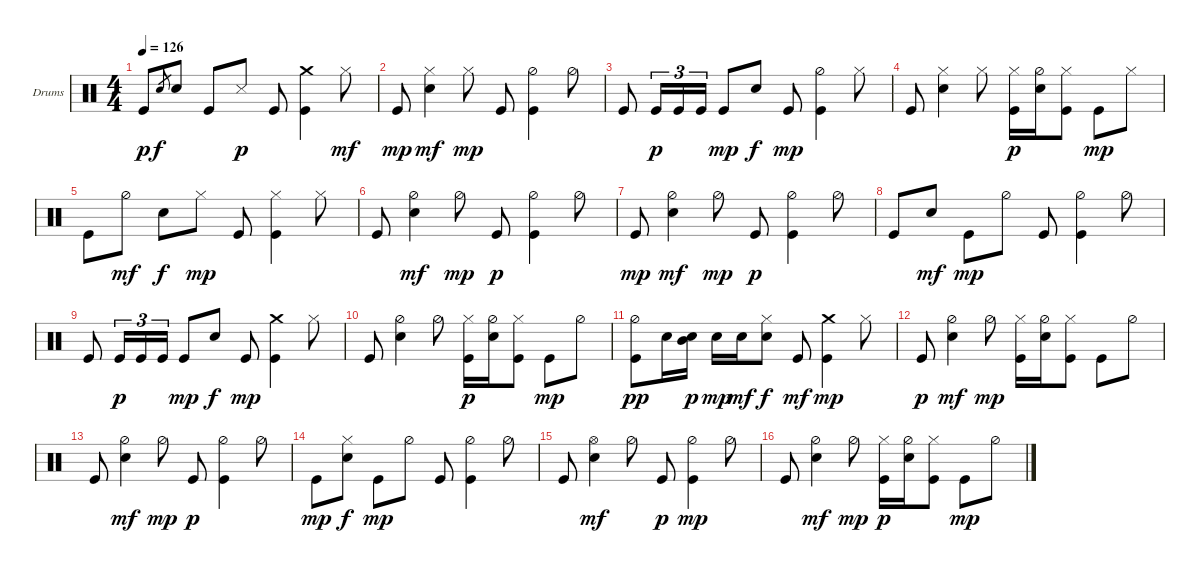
\bracketExtendMode groupsimilarinstruments
\firstSystemTrackNameOrientation horizontal
\otherSystemsTrackNameOrientation horizontal
\track ("drums - john hinch" "Drums") {instrument percussion}
\staff {score}
\articulation defaults
\ts (4 4)
\tempo 126
\clef neutral
\scale
0.333333
\ks c "Kick (hit)".8{dy p} "Snare (hit) 2".8{gr dy f} "Snare (hit) 2".8 "Kick (hit)".8 "Snare (side stick) 3".8{dy p} "Kick (hit)".8
("Kick (hit)" "Crash medium (hit)").4 "Hi-Hat (closed)".8{dy mf} |
\scale
0.333333 "Kick (hit)".8{dy mp} ("Snare (hit) 2" "Hi-Hat (closed)").4{dy mf} "Hi-Hat (closed)".8{dy mp} "Kick (hit)".8 ("Hi-Hat (half)" "Kick (hit)").4 "Hi-Hat (half)".8 |
"Kick (hit)".8 "Kick (hit)".16{tu (3 2) dy p} "Kick (hit)".16{tu (3 2)} "Kick (hit)".16{tu (3 2)} "Kick (hit)".8{dy mp} "Snare (hit) 2".8{dy f} "Kick (hit)".8{dy mp} ("Hi-Hat (half)" "Kick (hit)").4 "Hi-Hat (closed)".8 |
\scale
0.333333 "Kick (hit)".8 ("Snare (hit) 2" "Hi-Hat (closed)").4 "Hi-Hat (closed)".8 ("Kick (hit)" "Hi-Hat (closed)").16{dy p} ("Snare (hit) 2" "Hi-Hat (half)").16 ("Kick (hit)" "Hi-Hat (closed)").8 "Kick (hit)".8{dy mp} "Hi-Hat (closed)".8 |
\scale
0.333333 "Kick (hit)".8 "Hi-Hat (half)".8{dy mf} "Snare (hit) 2".8{dy f} "Hi-Hat (closed)".8{dy mp} "Kick (hit)".8 ("Hi-Hat (closed)" "Kick (hit)").4 "Hi-Hat (closed)".8 |
\scale
0.333333 "Kick (hit)".8 ("Snare (hit) 2" "Hi-Hat (half)").4{dy mf} "Hi-Hat (half)".8{dy mp} "Kick (hit)".8{dy p} ("Hi-Hat (half)" "Kick (hit)").4 "Hi-Hat (half)".8 |
\scale
0.333333 "Kick (hit)".8{dy mp} ("Snare (hit) 2" "Hi-Hat (half)").4{dy mf} "Hi-Hat (half)".8{dy mp} "Kick (hit)".8{dy p} ("Hi-Hat (half)" "Kick (hit)").4 "Hi-Hat (half)".8 |
\scale
0.333333 "Kick (hit)".8 "Snare (hit) 2".8{dy mf} "Kick (hit)".8{dy mp} "Hi-Hat (half)".8 "Kick (hit)".8 ("Hi-Hat (half)" "Kick (hit)").4 "Hi-Hat (half)".8 |
\scale
0.333333 "Kick (hit)".8 "Kick (hit)".16{tu (3 2) dy p} "Kick (hit)".16{tu (3 2)} "Kick (hit)".16{tu (3 2)} "Kick (hit)".8{dy mp} "Snare (hit) 2".8{dy f} "Kick (hit)".8{dy mp} ("Kick (hit)" "Crash medium (hit)").4 "Hi-Hat (closed)".8 |
\scale
0.333333 "Kick (hit)".8 ("Snare (hit) 2" "Hi-Hat (half)").4 "Hi-Hat (half)".8 ("Kick (hit)" "Hi-Hat (closed)").16{dy p} ("Snare (hit) 2" "Hi-Hat (half)").16 ("Kick (hit)" "Hi-Hat (closed)").8 "Kick (hit)".8{dy mp} "Hi-Hat (half)".8 |
\scale
0.333333 ("Kick (hit)" "Hi-Hat (half)").8{dy pp} "Snare (hit) 2".16 ("Snare (hit) 2" "Mid Tom (hit)").16{dy p} "Snare (hit) 2".16{dy mp} "Snare (hit) 2".16{dy mf} ("Snare (hit) 2" "Hi-Hat (closed)").8{dy f} "Kick (hit)".8{dy mf} ("Kick (hit)" "Crash medium (hit)").4{dy mp} "Hi-Hat (closed)".8 |
\scale
0.333333 "Kick (hit)".8{dy p} ("Snare (hit) 2" "Hi-Hat (half)").4{dy mf} "Hi-Hat (half)".8{dy mp} ("Kick (hit)" "Hi-Hat (closed)").16 ("Snare (hit) 2" "Hi-Hat (half)").16 ("Kick (hit)" "Hi-Hat (closed)").8 "Kick (hit)".8 "Hi-Hat (half)".8 |
\scale
0.333333 "Kick (hit)".8 ("Snare (hit) 2" "Hi-Hat (half)").4{dy mf} "Hi-Hat (half)".8{dy mp} "Kick (hit)".8{dy p} ("Hi-Hat (half)" "Kick (hit)").4 "Hi-Hat (half)".8 |
\scale
0.333333 "Kick (hit)".8{dy mp} ("Snare (hit) 2" "Hi-Hat (closed)").8{dy f} "Kick (hit)".8{dy mp} "Hi-Hat (half)".8 "Kick (hit)".8 ("Hi-Hat (half)" "Kick (hit)").4 "Hi-Hat (half)".8 |
\scale
0.333333 "Kick (hit)".8 ("Snare (hit) 2" "Hi-Hat (open)").4{dy mf} "Hi-Hat (half)".8 "Kick (hit)".8{dy p} ("Hi-Hat (half)" "Kick (hit)").4{dy mp} "Hi-Hat (half)".8 |
\scale
0.333333 "Kick (hit)".8 ("Snare (hit) 2" "Hi-Hat (half)").4{dy mf} "Hi-Hat (half)".8{dy mp} ("Kick (hit)" "Hi-Hat (closed)").16{dy p} ("Snare (hit) 2" "Hi-Hat (half)").16 ("Kick (hit)" "Hi-Hat (closed)").8 "Kick (hit)".8{dy mp} "Hi-Hat (half)".8
